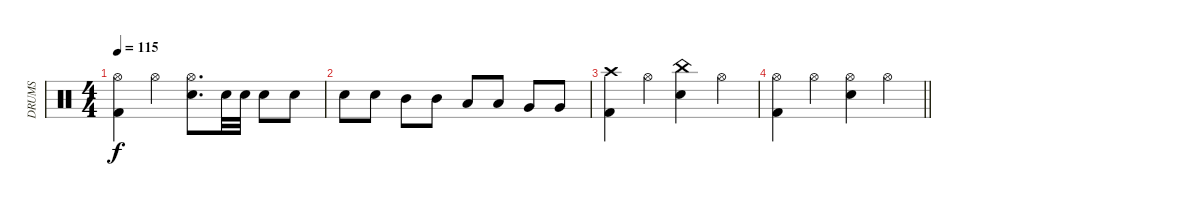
\track ("DRUMS" "DRUMS") {instrument percussion}
\staff {score}
\articulation defaults
\ts (4 4)
\tempo 115
\clef neutral
\ks c
("Hi-Hat (open)" "Kick (hit) 2").4{dy f} "Hi-Hat (open)".4 ("Hi-Hat (open)" "Snare (hit) 2").8{d} "Snare (hit) 2".32 "Snare (hit) 2".32 "Snare (hit) 2".8 "Snare (hit) 2".8 |
"Snare (hit) 2".8 "Snare (hit) 2".8 "Mid Tom (hit)".8 "Mid Tom (hit)".8 "Low Tom (hit)".8 "Low Tom (hit)".8 "Very Low Tom (hit)".8 "Very Low Tom (hit)".8 |
("Crash high (hit)" "Kick (hit) 2").4 "Hi-Hat (open)".4 ("China (hit)" "Snare (hit) 2").4 "Hi-Hat (open)".4 |
\barLineRight lightlight
("Hi-Hat (open)" "Kick (hit) 2").4{volume 0} "Hi-Hat (open)".4 ("Hi-Hat (open)" "Snare (hit) 2").4 "Hi-Hat (open)".4
